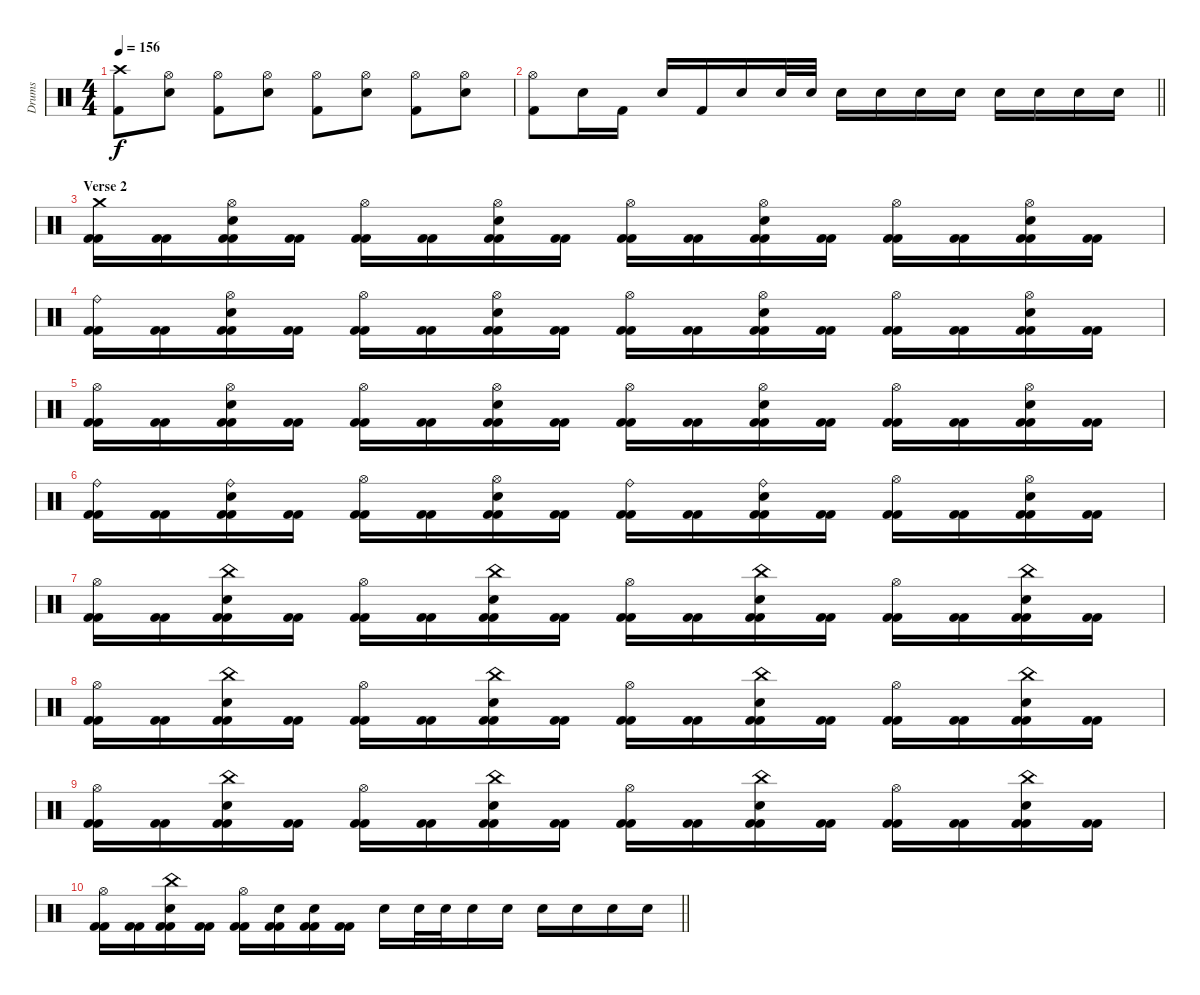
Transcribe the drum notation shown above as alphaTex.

\track ("Drums" "Drums") {instrument percussion}
\staff {score}
\articulation defaults
\ts (4 4)
\tempo 156
\clef neutral
\ks c
("Crash high (hit)" "Kick (hit) 2").8{dy f} ("Hi-Hat (open)" "Electric Snare (hit)").8 ("Hi-Hat (open)" "Kick (hit) 2").8 ("Hi-Hat (open)" "Electric Snare (hit)").8 ("Hi-Hat (open)" "Kick (hit) 2").8 ("Hi-Hat (open)" "Electric Snare (hit)").8 ("Hi-Hat (open)" "Kick (hit) 2").8 ("Hi-Hat (open)" "Electric Snare (hit)").8 |
\barLineRight lightlight
("Hi-Hat (open)" "Kick (hit) 2").8 "Electric Snare (hit)".16 "Kick (hit) 2".16 "Electric Snare (hit)".16 "Kick (hit) 2".16 "Electric Snare (hit)".16 "Electric Snare (hit)".32 "Electric Snare (hit)".32 "Electric Snare (hit)".16 "Electric Snare (hit)".16 "Electric Snare (hit)".16 "Electric Snare (hit)".16 "Electric Snare (hit)".16 "Electric Snare (hit)".16 "Electric Snare (hit)".16 "Electric Snare (hit)".16 |
\section ("" "Verse 2")
("Crash medium (hit)" "Kick (hit) 2" "Kick (hit) 2").16 ("Kick (hit) 2" "Kick (hit) 2").16 ("Hi-Hat (open)" "Electric Snare (hit)" "Kick (hit) 2" "Kick (hit) 2").16 ("Kick (hit) 2" "Kick (hit) 2").16 ("Hi-Hat (open)" "Kick (hit) 2" "Kick (hit) 2").16 ("Kick (hit) 2" "Kick (hit) 2").16 ("Hi-Hat (open)" "Electric Snare (hit)" "Kick (hit) 2" "Kick (hit) 2").16 ("Kick (hit) 2" "Kick (hit) 2").16 ("Hi-Hat (open)" "Kick (hit) 2" "Kick (hit) 2").16 ("Kick (hit) 2" "Kick (hit) 2").16 ("Hi-Hat (open)" "Electric Snare (hit)" "Kick (hit) 2" "Kick (hit) 2").16 ("Kick (hit) 2" "Kick (hit) 2").16 ("Hi-Hat (open)" "Kick (hit) 2" "Kick (hit) 2").16 ("Kick (hit) 2" "Kick (hit) 2").16 ("Hi-Hat (open)" "Electric Snare (hit)" "Kick (hit) 2" "Kick (hit) 2").16 ("Kick (hit) 2" "Kick (hit) 2").16 |
("Ride (bell)" "Kick (hit) 2" "Kick (hit) 2").16 ("Kick (hit) 2" "Kick (hit) 2").16 ("Hi-Hat (open)" "Electric Snare (hit)" "Kick (hit) 2" "Kick (hit) 2").16 ("Kick (hit) 2" "Kick (hit) 2").16 ("Hi-Hat (open)" "Kick (hit) 2" "Kick (hit) 2").16 ("Kick (hit) 2" "Kick (hit) 2").16 ("Hi-Hat (open)" "Electric Snare (hit)" "Kick (hit) 2" "Kick (hit) 2").16 ("Kick (hit) 2" "Kick (hit) 2").16 ("Hi-Hat (open)" "Kick (hit) 2" "Kick (hit) 2").16 ("Kick (hit) 2" "Kick (hit) 2").16 ("Hi-Hat (open)" "Electric Snare (hit)" "Kick (hit) 2" "Kick (hit) 2").16 ("Kick (hit) 2" "Kick (hit) 2").16 ("Hi-Hat (open)" "Kick (hit) 2" "Kick (hit) 2").16 ("Kick (hit) 2" "Kick (hit) 2").16 ("Hi-Hat (open)" "Electric Snare (hit)" "Kick (hit) 2" "Kick (hit) 2").16 ("Kick (hit) 2" "Kick (hit) 2").16 |
("Hi-Hat (open)" "Kick (hit) 2" "Kick (hit) 2").16 ("Kick (hit) 2" "Kick (hit) 2").16 ("Hi-Hat (open)" "Electric Snare (hit)" "Kick (hit) 2" "Kick (hit) 2").16 ("Kick (hit) 2" "Kick (hit) 2").16 ("Hi-Hat (open)" "Kick (hit) 2" "Kick (hit) 2").16 ("Kick (hit) 2" "Kick (hit) 2").16 ("Hi-Hat (open)" "Electric Snare (hit)" "Kick (hit) 2" "Kick (hit) 2").16 ("Kick (hit) 2" "Kick (hit) 2").16 ("Hi-Hat (open)" "Kick (hit) 2" "Kick (hit) 2").16 ("Kick (hit) 2" "Kick (hit) 2").16 ("Hi-Hat (open)" "Electric Snare (hit)" "Kick (hit) 2" "Kick (hit) 2").16 ("Kick (hit) 2" "Kick (hit) 2").16 ("Hi-Hat (open)" "Kick (hit) 2" "Kick (hit) 2").16 ("Kick (hit) 2" "Kick (hit) 2").16 ("Hi-Hat (open)" "Electric Snare (hit)" "Kick (hit) 2" "Kick (hit) 2").16 ("Kick (hit) 2" "Kick (hit) 2").16 |
("Ride (bell)" "Kick (hit) 2" "Kick (hit) 2").16 ("Kick (hit) 2" "Kick (hit) 2").16 ("Ride (bell)" "Electric Snare (hit)" "Kick (hit) 2" "Kick (hit) 2").16 ("Kick (hit) 2" "Kick (hit) 2").16 ("Hi-Hat (open)" "Kick (hit) 2" "Kick (hit) 2").16 ("Kick (hit) 2" "Kick (hit) 2").16 ("Hi-Hat (open)" "Electric Snare (hit)" "Kick (hit) 2" "Kick (hit) 2").16 ("Kick (hit) 2" "Kick (hit) 2").16 ("Ride (bell)" "Kick (hit) 2" "Kick (hit) 2").16 ("Kick (hit) 2" "Kick (hit) 2").16 ("Ride (bell)" "Electric Snare (hit)" "Kick (hit) 2" "Kick (hit) 2").16 ("Kick (hit) 2" "Kick (hit) 2").16 ("Hi-Hat (open)" "Kick (hit) 2" "Kick (hit) 2").16 ("Kick (hit) 2" "Kick (hit) 2").16 ("Hi-Hat (open)" "Electric Snare (hit)" "Kick (hit) 2" "Kick (hit) 2").16 ("Kick (hit) 2" "Kick (hit) 2").16 |
("Hi-Hat (open)" "Kick (hit) 2" "Kick (hit) 2").16 ("Kick (hit) 2" "Kick (hit) 2").16 ("China (hit)" "Electric Snare (hit)" "Kick (hit) 2" "Kick (hit) 2").16 ("Kick (hit) 2" "Kick (hit) 2").16 ("Hi-Hat (open)" "Kick (hit) 2" "Kick (hit) 2").16 ("Kick (hit) 2" "Kick (hit) 2").16 ("China (hit)" "Electric Snare (hit)" "Kick (hit) 2" "Kick (hit) 2").16 ("Kick (hit) 2" "Kick (hit) 2").16 ("Hi-Hat (open)" "Kick (hit) 2" "Kick (hit) 2").16 ("Kick (hit) 2" "Kick (hit) 2").16 ("China (hit)" "Electric Snare (hit)" "Kick (hit) 2" "Kick (hit) 2").16 ("Kick (hit) 2" "Kick (hit) 2").16 ("Hi-Hat (open)" "Kick (hit) 2" "Kick (hit) 2").16 ("Kick (hit) 2" "Kick (hit) 2").16 ("China (hit)" "Electric Snare (hit)" "Kick (hit) 2" "Kick (hit) 2").16 ("Kick (hit) 2" "Kick (hit) 2").16 |
("Hi-Hat (open)" "Kick (hit) 2" "Kick (hit) 2").16 ("Kick (hit) 2" "Kick (hit) 2").16 ("China (hit)" "Electric Snare (hit)" "Kick (hit) 2" "Kick (hit) 2").16 ("Kick (hit) 2" "Kick (hit) 2").16 ("Hi-Hat (open)" "Kick (hit) 2" "Kick (hit) 2").16 ("Kick (hit) 2" "Kick (hit) 2").16 ("China (hit)" "Electric Snare (hit)" "Kick (hit) 2" "Kick (hit) 2").16 ("Kick (hit) 2" "Kick (hit) 2").16 ("Hi-Hat (open)" "Kick (hit) 2" "Kick (hit) 2").16 ("Kick (hit) 2" "Kick (hit) 2").16 ("China (hit)" "Electric Snare (hit)" "Kick (hit) 2" "Kick (hit) 2").16 ("Kick (hit) 2" "Kick (hit) 2").16 ("Hi-Hat (open)" "Kick (hit) 2" "Kick (hit) 2").16 ("Kick (hit) 2" "Kick (hit) 2").16 ("China (hit)" "Electric Snare (hit)" "Kick (hit) 2" "Kick (hit) 2").16 ("Kick (hit) 2" "Kick (hit) 2").16 |
("Hi-Hat (open)" "Kick (hit) 2" "Kick (hit) 2").16 ("Kick (hit) 2" "Kick (hit) 2").16 ("China (hit)" "Electric Snare (hit)" "Kick (hit) 2" "Kick (hit) 2").16 ("Kick (hit) 2" "Kick (hit) 2").16 ("Hi-Hat (open)" "Kick (hit) 2" "Kick (hit) 2").16 ("Kick (hit) 2" "Kick (hit) 2").16 ("China (hit)" "Electric Snare (hit)" "Kick (hit) 2" "Kick (hit) 2").16 ("Kick (hit) 2" "Kick (hit) 2").16 ("Hi-Hat (open)" "Kick (hit) 2" "Kick (hit) 2").16 ("Kick (hit) 2" "Kick (hit) 2").16 ("China (hit)" "Electric Snare (hit)" "Kick (hit) 2" "Kick (hit) 2").16 ("Kick (hit) 2" "Kick (hit) 2").16 ("Hi-Hat (open)" "Kick (hit) 2" "Kick (hit) 2").16 ("Kick (hit) 2" "Kick (hit) 2").16 ("China (hit)" "Electric Snare (hit)" "Kick (hit) 2" "Kick (hit) 2").16 ("Kick (hit) 2" "Kick (hit) 2").16 |
\barLineRight lightlight
("Hi-Hat (open)" "Kick (hit) 2" "Kick (hit) 2").16 ("Kick (hit) 2" "Kick (hit) 2").16 ("China (hit)" "Electric Snare (hit)" "Kick (hit) 2" "Kick (hit) 2").16 ("Kick (hit) 2" "Kick (hit) 2").16 ("Hi-Hat (open)" "Kick (hit) 2" "Kick (hit) 2").16 ("Electric Snare (hit)" "Kick (hit) 2" "Kick (hit) 2").16 ("Electric Snare (hit)" "Kick (hit) 2" "Kick (hit) 2").16 ("Kick (hit) 2" "Kick (hit) 2").16 "Electric Snare (hit)".16 "Electric Snare (hit)".32 "Electric Snare (hit)".32 "Electric Snare (hit)".16 "Electric Snare (hit)".16 "Electric Snare (hit)".16 "Electric Snare (hit)".16 "Electric Snare (hit)".16 "Electric Snare (hit)".16
